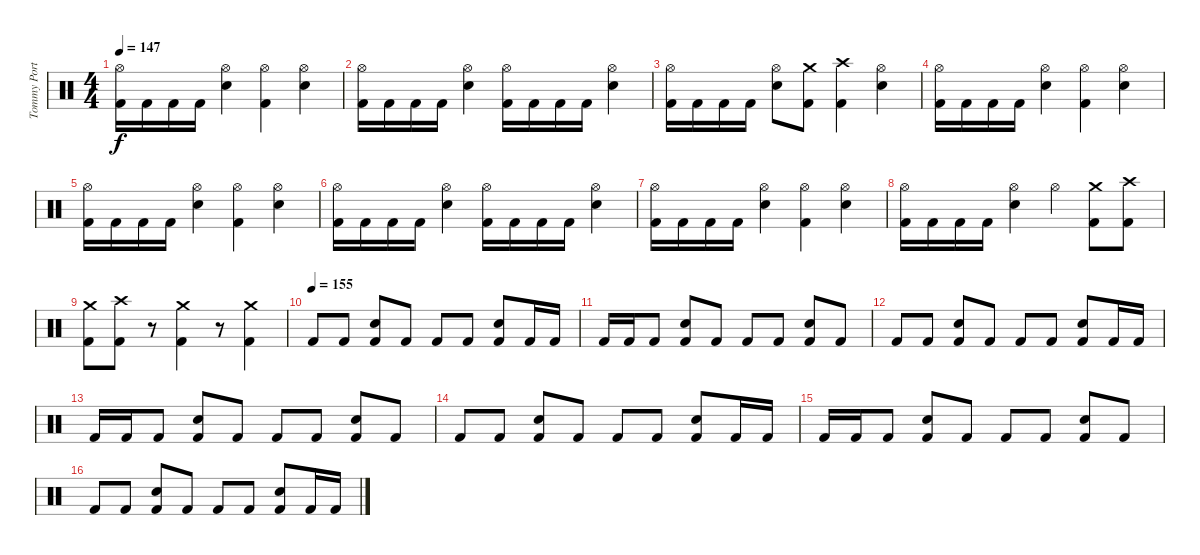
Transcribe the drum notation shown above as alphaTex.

\track ("Tommy Portino" "Tommy Port") {instrument percussion}
\staff {score}
\articulation defaults
\ts (4 4)
\tempo 147
\clef neutral
\ks c
("Hi-Hat (open)" "Kick (hit) 2").16{dy f} "Kick (hit) 2".16 "Kick (hit) 2".16 "Kick (hit) 2".16 ("Hi-Hat (open)" "Electric Snare (hit)").4 ("Hi-Hat (open)" "Kick (hit) 2").4 ("Hi-Hat (open)" "Electric Snare (hit)").4 |
("Hi-Hat (open)" "Kick (hit) 2").16 "Kick (hit) 2".16 "Kick (hit) 2".16 "Kick (hit) 2".16 ("Hi-Hat (open)" "Electric Snare (hit)").4 ("Hi-Hat (open)" "Kick (hit) 2").16 "Kick (hit) 2".16 "Kick (hit) 2".16 "Kick (hit) 2".16 ("Hi-Hat (open)" "Electric Snare (hit)").4 |
("Hi-Hat (open)" "Kick (hit) 2").16 "Kick (hit) 2".16 "Kick (hit) 2".16 "Kick (hit) 2".16 ("Hi-Hat (open)" "Electric Snare (hit)").8 ("Crash medium (hit)" "Kick (hit) 2").8 ("Crash high (hit)" "Kick (hit) 2").4 ("Hi-Hat (open)" "Electric Snare (hit)").4 |
("Hi-Hat (open)" "Kick (hit) 2").16 "Kick (hit) 2".16 "Kick (hit) 2".16 "Kick (hit) 2".16 ("Hi-Hat (open)" "Electric Snare (hit)").4 ("Hi-Hat (open)" "Kick (hit) 2").4 ("Hi-Hat (open)" "Electric Snare (hit)").4 |
("Hi-Hat (open)" "Kick (hit) 2").16 "Kick (hit) 2".16 "Kick (hit) 2".16 "Kick (hit) 2".16 ("Hi-Hat (open)" "Electric Snare (hit)").4 ("Hi-Hat (open)" "Kick (hit) 2").4 ("Hi-Hat (open)" "Electric Snare (hit)").4 |
("Hi-Hat (open)" "Kick (hit) 2").16 "Kick (hit) 2".16 "Kick (hit) 2".16 "Kick (hit) 2".16 ("Hi-Hat (open)" "Electric Snare (hit)").4 ("Hi-Hat (open)" "Kick (hit) 2").16 "Kick (hit) 2".16 "Kick (hit) 2".16 "Kick (hit) 2".16 ("Hi-Hat (open)" "Electric Snare (hit)").4 |
("Hi-Hat (open)" "Kick (hit) 2").16 "Kick (hit) 2".16 "Kick (hit) 2".16 "Kick (hit) 2".16 ("Hi-Hat (open)" "Electric Snare (hit)").4 ("Hi-Hat (open)" "Kick (hit) 2").4 ("Hi-Hat (open)" "Electric Snare (hit)").4 |
("Hi-Hat (open)" "Kick (hit) 2").16 "Kick (hit) 2".16 "Kick (hit) 2".16 "Kick (hit) 2".16 ("Hi-Hat (open)" "Electric Snare (hit)").4 "Hi-Hat (open)".4 ("Crash medium (hit)" "Kick (hit) 2").8 ("Crash high (hit)" "Kick (hit) 2").8 |
("Crash medium (hit)" "Kick (hit) 2").8 ("Crash high (hit)" "Kick (hit) 2").8 r.8 ("Crash medium (hit)" "Kick (hit) 2").4 r.8 ("Crash medium (hit)" "Kick (hit) 2").4 |
\tempo (155)
"Kick (hit) 2".8 "Kick (hit) 2".8 ("Electric Snare (hit)" "Kick (hit) 2").8 "Kick (hit) 2".8 "Kick (hit) 2".8 "Kick (hit) 2".8 ("Electric Snare (hit)" "Kick (hit) 2").8 "Kick (hit) 2".16 "Kick (hit) 2".16 |
"Kick (hit) 2".16 "Kick (hit) 2".16 "Kick (hit) 2".8 ("Electric Snare (hit)" "Kick (hit) 2").8 "Kick (hit) 2".8 "Kick (hit) 2".8 "Kick (hit) 2".8 ("Electric Snare (hit)" "Kick (hit) 2").8 "Kick (hit) 2".8 |
"Kick (hit) 2".8 "Kick (hit) 2".8 ("Electric Snare (hit)" "Kick (hit) 2").8 "Kick (hit) 2".8 "Kick (hit) 2".8 "Kick (hit) 2".8 ("Electric Snare (hit)" "Kick (hit) 2").8 "Kick (hit) 2".16 "Kick (hit) 2".16 |
"Kick (hit) 2".16 "Kick (hit) 2".16 "Kick (hit) 2".8 ("Electric Snare (hit)" "Kick (hit) 2").8 "Kick (hit) 2".8 "Kick (hit) 2".8 "Kick (hit) 2".8 ("Electric Snare (hit)" "Kick (hit) 2").8 "Kick (hit) 2".8 |
"Kick (hit) 2".8 "Kick (hit) 2".8 ("Electric Snare (hit)" "Kick (hit) 2").8 "Kick (hit) 2".8 "Kick (hit) 2".8 "Kick (hit) 2".8 ("Electric Snare (hit)" "Kick (hit) 2").8 "Kick (hit) 2".16 "Kick (hit) 2".16 |
"Kick (hit) 2".16 "Kick (hit) 2".16 "Kick (hit) 2".8 ("Electric Snare (hit)" "Kick (hit) 2").8 "Kick (hit) 2".8 "Kick (hit) 2".8 "Kick (hit) 2".8 ("Electric Snare (hit)" "Kick (hit) 2").8 "Kick (hit) 2".8 |
"Kick (hit) 2".8 "Kick (hit) 2".8 ("Electric Snare (hit)" "Kick (hit) 2").8 "Kick (hit) 2".8 "Kick (hit) 2".8 "Kick (hit) 2".8 ("Electric Snare (hit)" "Kick (hit) 2").8 "Kick (hit) 2".16 "Kick (hit) 2".16
